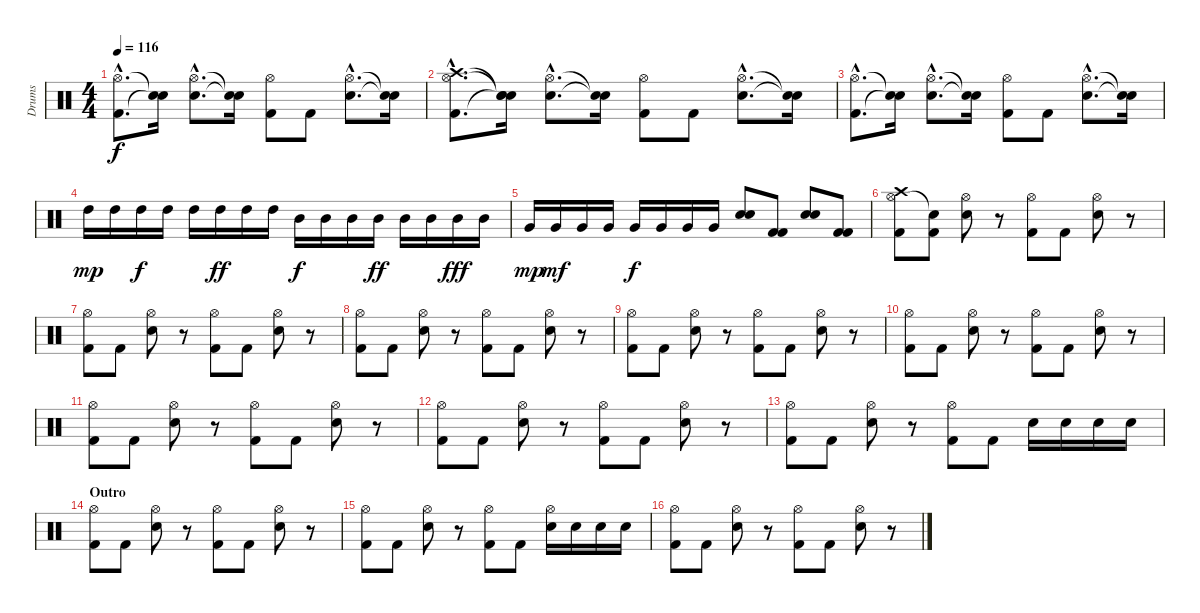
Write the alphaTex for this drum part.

\track ("Drums" "Drums") {instrument percussion}
\staff {score}
\articulation defaults
\ts (4 4)
\tempo 116
\clef neutral
\ks c
("Kick (hit) 2"{hac} "Hi-Hat (open)"{hac}).8{d dy f} ("Snare (hit)"{t} "Snare (hit)"{t}).16 ("Snare (hit) 2"{hac} "Hi-Hat (open)"{hac}).8{d} ("Snare (hit)"{t} "Snare (hit)"{t}).16 ("Kick (hit) 2" "Hi-Hat (open)").8 "Kick (hit) 2".8 ("Snare (hit) 2"{hac} "Hi-Hat (open)"{hac}).8{d} ("Snare (hit)"{t} "Snare (hit)"{t}).16 |
("Kick (hit) 2"{hac} "Hi-Hat (open)"{hac} "Crash high (hit)"{hac}).8{d} ("Snare (hit)"{t} "Snare (hit)"{t} "Snare (hit)"{t}).16 ("Snare (hit) 2"{hac} "Hi-Hat (open)"{hac}).8{d} ("Snare (hit)"{t} "Snare (hit)"{t}).16 ("Kick (hit) 2" "Hi-Hat (open)").8 "Kick (hit) 2".8 ("Snare (hit) 2"{hac} "Hi-Hat (open)"{hac}).8{d} ("Snare (hit)"{t} "Snare (hit)"{t}).16 |
("Kick (hit) 2"{hac} "Hi-Hat (open)"{hac}).8{d} ("Snare (hit)"{t} "Snare (hit)"{t}).16 ("Snare (hit) 2"{hac} "Hi-Hat (open)"{hac}).8{d} ("Snare (hit)"{t} "Snare (hit)"{t}).16 ("Kick (hit) 2" "Hi-Hat (open)").8 "Kick (hit) 2".8 ("Snare (hit) 2"{hac} "Hi-Hat (open)"{hac}).8{d} ("Snare (hit)"{t} "Snare (hit)"{t}).16 |
"High Tom (hit)".16{dy mp} "High Tom (hit)".16 "High Tom (hit)".16{dy f} "High Tom (hit)".16 "High Tom (hit)".16 "High Tom (hit)".16{dy ff} "High Tom (hit)".16 "High Tom (hit)".16 "Mid Tom (hit)".16{dy f} "Mid Tom (hit)".16 "Mid Tom (hit)".16 "Mid Tom (hit)".16{dy ff} "Mid Tom (hit)".16 "Mid Tom (hit)".16 "Mid Tom (hit)".16{dy fff} "Mid Tom (hit)".16 |
"Very Low Tom (hit)".16{dy mp} "Very Low Tom (hit)".16{dy mf} "Very Low Tom (hit)".16 "Very Low Tom (hit)".16 "Very Low Tom (hit)".16{dy f} "Very Low Tom (hit)".16 "Very Low Tom (hit)".16 "Very Low Tom (hit)".16 ("Snare (hit) 2" "Snare (hit) 2").8 ("Kick (hit) 2" "Kick (hit) 2").8 ("Snare (hit) 2" "Snare (hit) 2").8 ("Kick (hit) 2" "Kick (hit) 2").8 |
("Kick (hit) 2" "Hi-Hat (open)" "Crash high (hit)").8 ("Kick (hit) 2" "Snare (hit)"{t}).8 ("Snare (hit) 2" "Hi-Hat (open)").8 r.8 ("Kick (hit) 2" "Hi-Hat (open)").8 "Kick (hit) 2".8 ("Snare (hit) 2" "Hi-Hat (open)").8 r.8 |
("Kick (hit) 2" "Hi-Hat (open)").8 "Kick (hit) 2".8 ("Snare (hit) 2" "Hi-Hat (open)").8 r.8 ("Kick (hit) 2" "Hi-Hat (open)").8 "Kick (hit) 2".8 ("Snare (hit) 2" "Hi-Hat (open)").8 r.8 |
("Kick (hit) 2" "Hi-Hat (open)").8 "Kick (hit) 2".8 ("Snare (hit) 2" "Hi-Hat (open)").8 r.8 ("Kick (hit) 2" "Hi-Hat (open)").8 "Kick (hit) 2".8 ("Snare (hit) 2" "Hi-Hat (open)").8 r.8 |
("Kick (hit) 2" "Hi-Hat (open)").8 "Kick (hit) 2".8 ("Snare (hit) 2" "Hi-Hat (open)").8 r.8 ("Kick (hit) 2" "Hi-Hat (open)").8 "Kick (hit) 2".8 ("Snare (hit) 2" "Hi-Hat (open)").8 r.8 |
("Kick (hit) 2" "Hi-Hat (open)").8 "Kick (hit) 2".8 ("Snare (hit) 2" "Hi-Hat (open)").8 r.8 ("Kick (hit) 2" "Hi-Hat (open)").8 "Kick (hit) 2".8 ("Snare (hit) 2" "Hi-Hat (open)").8 r.8 |
("Kick (hit) 2" "Hi-Hat (open)").8 "Kick (hit) 2".8 ("Snare (hit) 2" "Hi-Hat (open)").8 r.8 ("Kick (hit) 2" "Hi-Hat (open)").8 "Kick (hit) 2".8 ("Snare (hit) 2" "Hi-Hat (open)").8 r.8 |
("Kick (hit) 2" "Hi-Hat (open)").8 "Kick (hit) 2".8 ("Snare (hit) 2" "Hi-Hat (open)").8 r.8 ("Kick (hit) 2" "Hi-Hat (open)").8 "Kick (hit) 2".8 ("Snare (hit) 2" "Hi-Hat (open)").8 r.8 |
("Kick (hit) 2" "Hi-Hat (open)").8 "Kick (hit) 2".8 ("Snare (hit) 2" "Hi-Hat (open)").8 r.8 ("Kick (hit) 2" "Hi-Hat (open)").8 "Kick (hit) 2".8 "Snare (hit) 2".16 "Snare (hit) 2".16 "Snare (hit) 2".16 "Snare (hit) 2".16 |
\section ("" "Outro")
("Kick (hit) 2" "Hi-Hat (open)").8 "Kick (hit) 2".8 ("Snare (hit) 2" "Hi-Hat (open)").8 r.8 ("Kick (hit) 2" "Hi-Hat (open)").8 "Kick (hit) 2".8 ("Snare (hit) 2" "Hi-Hat (open)").8 r.8 |
("Kick (hit) 2" "Hi-Hat (open)").8 "Kick (hit) 2".8 ("Snare (hit) 2" "Hi-Hat (open)").8 r.8 ("Kick (hit) 2" "Hi-Hat (open)").8 "Kick (hit) 2".8 ("Snare (hit) 2" "Hi-Hat (open)").16 "Snare (hit) 2".16 "Snare (hit) 2".16 "Snare (hit) 2".16 |
("Kick (hit) 2" "Hi-Hat (open)").8 "Kick (hit) 2".8 ("Snare (hit) 2" "Hi-Hat (open)").8 r.8 ("Kick (hit) 2" "Hi-Hat (open)").8 "Kick (hit) 2".8 ("Snare (hit) 2" "Hi-Hat (open)").8 r.8
